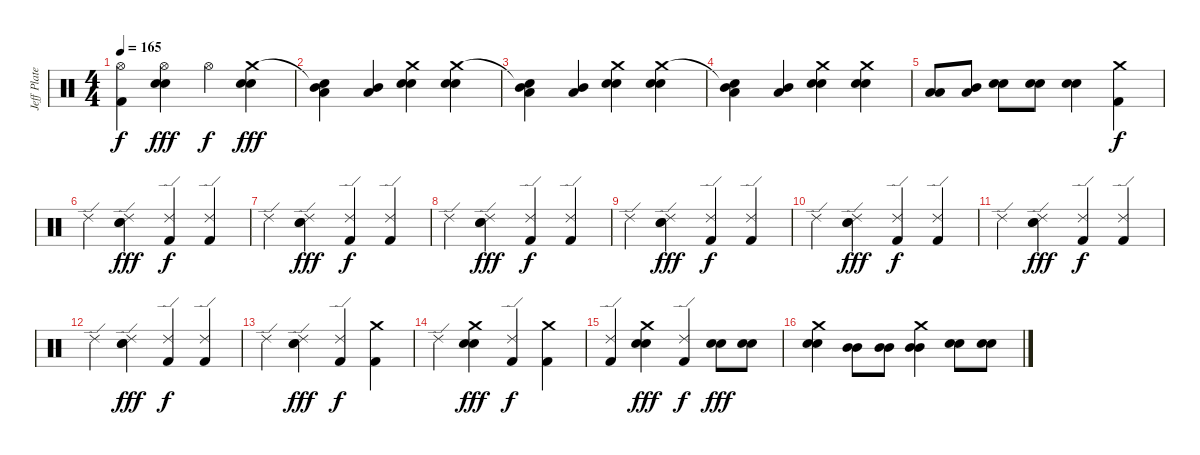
\track ("Jeff Plate" "Jeff Plate") {instrument percussion}
\staff {score}
\articulation defaults
\ts (4 4)
\tempo 165
\clef neutral
\ks c
("Hi-Hat (open)" "Kick (hit) 2").4{dy f} ("Hi-Hat (open)" "Electric Snare (hit)" "Electric Snare (hit)").4{dy fff} "Hi-Hat (open)".4{dy f} ("Electric Snare (hit)" "Electric Snare (hit)" "Crash medium (hit)").4{dy fff} |
("Mid Tom (hit)" "Low Tom (hit)" "Snare (hit)"{t}).4 ("Mid Tom (hit)" "Low Tom (hit)").4 ("Electric Snare (hit)" "Electric Snare (hit)" "Crash medium (hit)").4 ("Electric Snare (hit)" "Electric Snare (hit)" "Crash medium (hit)").4 |
("Mid Tom (hit)" "Low Tom (hit)" "Snare (hit)"{t}).4 ("Mid Tom (hit)" "Low Tom (hit)").4 ("Electric Snare (hit)" "Electric Snare (hit)" "Crash medium (hit)").4 ("Electric Snare (hit)" "Electric Snare (hit)" "Crash medium (hit)").4 |
("Mid Tom (hit)" "Low Tom (hit)" "Snare (hit)"{t}).4 ("Mid Tom (hit)" "Low Tom (hit)").4 ("Electric Snare (hit)" "Electric Snare (hit)" "Crash medium (hit)").4 ("Electric Snare (hit)" "Electric Snare (hit)" "Crash medium (hit)").4 |
("Low Tom (hit)" "Low Tom (hit)").8 ("Mid Tom (hit)" "Low Tom (hit)").8 ("Electric Snare (hit)" "Electric Snare (hit)").8 ("Electric Snare (hit)" "Electric Snare (hit)").8 ("Electric Snare (hit)" "Electric Snare (hit)").4 ("Crash medium (hit)" "Kick (hit) 2").4{dy f} |
"Ride (edge) 2".4 ("Ride (edge) 2" "Electric Snare (hit)" "Electric Snare (hit)").4{dy fff} ("Ride (edge) 2" "Kick (hit) 2").4{dy f} ("Ride (edge) 2" "Kick (hit) 2").4 |
"Ride (edge) 2".4 ("Ride (edge) 2" "Electric Snare (hit)" "Electric Snare (hit)").4{dy fff} ("Ride (edge) 2" "Kick (hit) 2").4{dy f} ("Ride (edge) 2" "Kick (hit) 2").4 |
"Ride (edge) 2".4 ("Ride (edge) 2" "Electric Snare (hit)" "Electric Snare (hit)").4{dy fff} ("Ride (edge) 2" "Kick (hit) 2").4{dy f} ("Ride (edge) 2" "Kick (hit) 2").4 |
"Ride (edge) 2".4 ("Ride (edge) 2" "Electric Snare (hit)" "Electric Snare (hit)").4{dy fff} ("Ride (edge) 2" "Kick (hit) 2").4{dy f} ("Ride (edge) 2" "Kick (hit) 2").4 |
"Ride (edge) 2".4 ("Ride (edge) 2" "Electric Snare (hit)" "Electric Snare (hit)").4{dy fff} ("Ride (edge) 2" "Kick (hit) 2").4{dy f} ("Ride (edge) 2" "Kick (hit) 2").4 |
"Ride (edge) 2".4 ("Ride (edge) 2" "Electric Snare (hit)" "Electric Snare (hit)").4{dy fff} ("Ride (edge) 2" "Kick (hit) 2").4{dy f} ("Ride (edge) 2" "Kick (hit) 2").4 |
"Ride (edge) 2".4 ("Ride (edge) 2" "Electric Snare (hit)" "Electric Snare (hit)").4{dy fff} ("Ride (edge) 2" "Kick (hit) 2").4{dy f} ("Ride (edge) 2" "Kick (hit) 2").4 |
"Ride (edge) 2".4 ("Ride (edge) 2" "Electric Snare (hit)" "Electric Snare (hit)").4{dy fff} ("Ride (edge) 2" "Kick (hit) 2").4{dy f} ("Crash medium (hit)" "Kick (hit) 2").4 |
"Ride (edge) 2".4 ("Crash medium (hit)" "Electric Snare (hit)" "Electric Snare (hit)").4{dy fff} ("Ride (edge) 2" "Kick (hit) 2").4{dy f} ("Crash medium (hit)" "Kick (hit) 2").4 |
("Ride (edge) 2" "Kick (hit) 2").4 ("Crash medium (hit)" "Electric Snare (hit)" "Electric Snare (hit)").4{dy fff} ("Ride (edge) 2" "Kick (hit) 2").4{dy f} ("Electric Snare (hit)" "Electric Snare (hit)").8{dy fff} ("Electric Snare (hit)" "Electric Snare (hit)").8 |
("Crash medium (hit)" "Electric Snare (hit)" "Electric Snare (hit)").4 ("Mid Tom (hit)" "Mid Tom (hit)").8 ("Mid Tom (hit)" "Mid Tom (hit)").8 ("Crash medium (hit)" "Mid Tom (hit)" "Mid Tom (hit)").4 ("Electric Snare (hit)" "Electric Snare (hit)").8 ("Electric Snare (hit)" "Electric Snare (hit)").8
